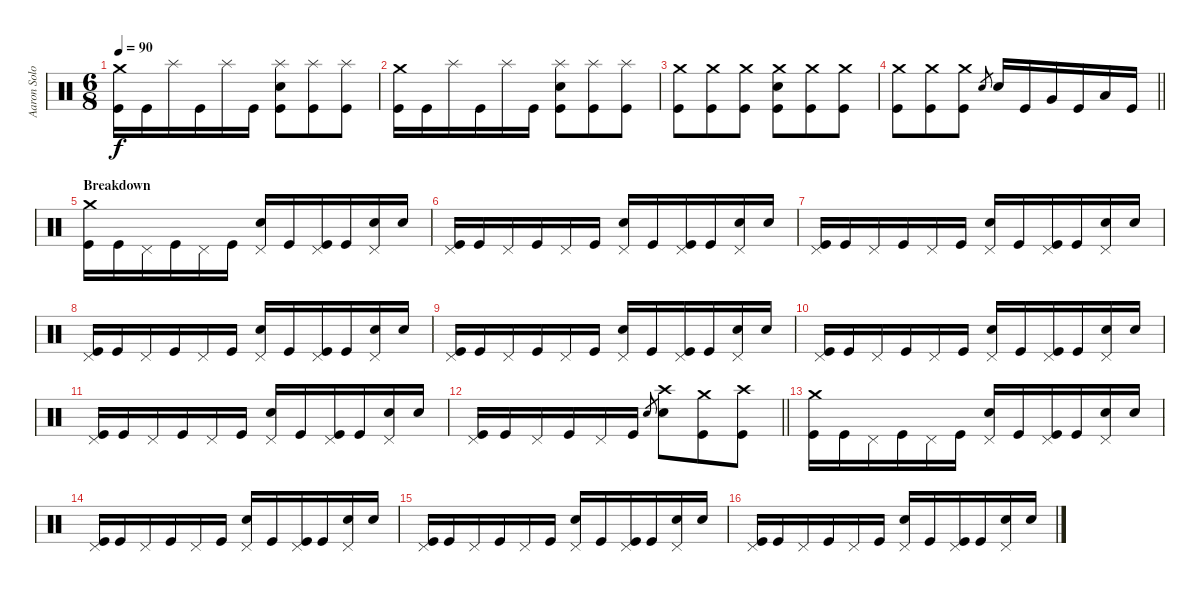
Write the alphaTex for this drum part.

\track ("Aaron Solowoniuk" "Aaron Solo") {instrument percussion}
\staff {score}
\articulation defaults
\ts (6 8)
\tempo 90
\clef neutral
\ks c
("Crash medium (hit)" "Kick (hit)").16{dy f} "Kick (hit)".16 "Splash (hit)".16 "Kick (hit)".16 "Splash (hit)".16 "Kick (hit)".16 ("Splash (hit)" "Electric Snare (hit)" "Kick (hit)").8 ("Splash (hit)" "Kick (hit)").8 ("Splash (hit)" "Kick (hit)").8 |
("Crash medium (hit)" "Kick (hit)").16 "Kick (hit)".16 "Splash (hit)".16 "Kick (hit)".16 "Splash (hit)".16 "Kick (hit)".16 ("Splash (hit)" "Electric Snare (hit)" "Kick (hit)").8 ("Splash (hit)" "Kick (hit)").8 ("Splash (hit)" "Kick (hit)").8 |
("Crash medium (hit)" "Kick (hit)").8 ("Crash medium (hit)" "Kick (hit)").8 ("Crash medium (hit)" "Kick (hit)").8 ("Crash medium (hit)" "Electric Snare (hit)" "Kick (hit)").8 ("Crash medium (hit)" "Kick (hit)").8 ("Crash medium (hit)" "Kick (hit)").8 |
\barLineRight lightlight
("Crash medium (hit)" "Kick (hit)").8 ("Crash medium (hit)" "Kick (hit)").8 ("Crash medium (hit)" "Kick (hit)").8 "Electric Snare (hit)".8{gr} "Electric Snare (hit)".16 "Kick (hit)".16 "Very Low Tom (hit)".16 "Kick (hit)".16 "Low Floor Tom (hit)".16 "Kick (hit)".16 |
\section ("" "Breakdown")
("Crash medium (hit)" "Kick (hit)").16 "Kick (hit)".16 "Pedal Hi-Hat (hit)".16 "Kick (hit)".16 "Pedal Hi-Hat (hit)".16 "Kick (hit)".16 ("Pedal Hi-Hat (hit)" "Electric Snare (hit)").16 "Kick (hit)".16 ("Pedal Hi-Hat (hit)" "Kick (hit)").16 "Kick (hit)".16 ("Pedal Hi-Hat (hit)" "Electric Snare (hit)").16 "Electric Snare (hit)".16 |
("Pedal Hi-Hat (hit)" "Kick (hit)").16 "Kick (hit)".16 "Pedal Hi-Hat (hit)".16 "Kick (hit)".16 "Pedal Hi-Hat (hit)".16 "Kick (hit)".16 ("Pedal Hi-Hat (hit)" "Electric Snare (hit)").16 "Kick (hit)".16 ("Pedal Hi-Hat (hit)" "Kick (hit)").16 "Kick (hit)".16 ("Pedal Hi-Hat (hit)" "Electric Snare (hit)").16 "Electric Snare (hit)".16 |
("Pedal Hi-Hat (hit)" "Kick (hit)").16 "Kick (hit)".16 "Pedal Hi-Hat (hit)".16 "Kick (hit)".16 "Pedal Hi-Hat (hit)".16 "Kick (hit)".16 ("Pedal Hi-Hat (hit)" "Electric Snare (hit)").16 "Kick (hit)".16 ("Pedal Hi-Hat (hit)" "Kick (hit)").16 "Kick (hit)".16 ("Pedal Hi-Hat (hit)" "Electric Snare (hit)").16 "Electric Snare (hit)".16 |
("Pedal Hi-Hat (hit)" "Kick (hit)").16 "Kick (hit)".16 "Pedal Hi-Hat (hit)".16 "Kick (hit)".16 "Pedal Hi-Hat (hit)".16 "Kick (hit)".16 ("Pedal Hi-Hat (hit)" "Electric Snare (hit)").16 "Kick (hit)".16 ("Pedal Hi-Hat (hit)" "Kick (hit)").16 "Kick (hit)".16 ("Pedal Hi-Hat (hit)" "Electric Snare (hit)").16 "Electric Snare (hit)".16 |
("Pedal Hi-Hat (hit)" "Kick (hit)").16 "Kick (hit)".16 "Pedal Hi-Hat (hit)".16 "Kick (hit)".16 "Pedal Hi-Hat (hit)".16 "Kick (hit)".16 ("Pedal Hi-Hat (hit)" "Electric Snare (hit)").16 "Kick (hit)".16 ("Pedal Hi-Hat (hit)" "Kick (hit)").16 "Kick (hit)".16 ("Pedal Hi-Hat (hit)" "Electric Snare (hit)").16 "Electric Snare (hit)".16 |
("Pedal Hi-Hat (hit)" "Kick (hit)").16 "Kick (hit)".16 "Pedal Hi-Hat (hit)".16 "Kick (hit)".16 "Pedal Hi-Hat (hit)".16 "Kick (hit)".16 ("Pedal Hi-Hat (hit)" "Electric Snare (hit)").16 "Kick (hit)".16 ("Pedal Hi-Hat (hit)" "Kick (hit)").16 "Kick (hit)".16 ("Pedal Hi-Hat (hit)" "Electric Snare (hit)").16 "Electric Snare (hit)".16 |
("Pedal Hi-Hat (hit)" "Kick (hit)").16 "Kick (hit)".16 "Pedal Hi-Hat (hit)".16 "Kick (hit)".16 "Pedal Hi-Hat (hit)".16 "Kick (hit)".16 ("Pedal Hi-Hat (hit)" "Electric Snare (hit)").16 "Kick (hit)".16 ("Pedal Hi-Hat (hit)" "Kick (hit)").16 "Kick (hit)".16 ("Pedal Hi-Hat (hit)" "Electric Snare (hit)").16 "Electric Snare (hit)".16 |
\barLineRight lightlight
("Pedal Hi-Hat (hit)" "Kick (hit)").16 "Kick (hit)".16 "Pedal Hi-Hat (hit)".16 "Kick (hit)".16 "Pedal Hi-Hat (hit)".16 "Kick (hit)".16 "Electric Snare (hit)".8{gr} ("Crash high (hit)" "Electric Snare (hit)").8 ("Crash medium (hit)" "Kick (hit)").8 ("Crash high (hit)" "Kick (hit)").8 |
\section ("" "")
("Crash medium (hit)" "Kick (hit)").16 "Kick (hit)".16 "Pedal Hi-Hat (hit)".16 "Kick (hit)".16 "Pedal Hi-Hat (hit)".16 "Kick (hit)".16 ("Pedal Hi-Hat (hit)" "Electric Snare (hit)").16 "Kick (hit)".16 ("Pedal Hi-Hat (hit)" "Kick (hit)").16 "Kick (hit)".16 ("Pedal Hi-Hat (hit)" "Electric Snare (hit)").16 "Electric Snare (hit)".16 |
("Pedal Hi-Hat (hit)" "Kick (hit)").16 "Kick (hit)".16 "Pedal Hi-Hat (hit)".16 "Kick (hit)".16 "Pedal Hi-Hat (hit)".16 "Kick (hit)".16 ("Pedal Hi-Hat (hit)" "Electric Snare (hit)").16 "Kick (hit)".16 ("Pedal Hi-Hat (hit)" "Kick (hit)").16 "Kick (hit)".16 ("Pedal Hi-Hat (hit)" "Electric Snare (hit)").16 "Electric Snare (hit)".16 |
("Pedal Hi-Hat (hit)" "Kick (hit)").16 "Kick (hit)".16 "Pedal Hi-Hat (hit)".16 "Kick (hit)".16 "Pedal Hi-Hat (hit)".16 "Kick (hit)".16 ("Pedal Hi-Hat (hit)" "Electric Snare (hit)").16 "Kick (hit)".16 ("Pedal Hi-Hat (hit)" "Kick (hit)").16 "Kick (hit)".16 ("Pedal Hi-Hat (hit)" "Electric Snare (hit)").16 "Electric Snare (hit)".16 |
("Pedal Hi-Hat (hit)" "Kick (hit)").16 "Kick (hit)".16 "Pedal Hi-Hat (hit)".16 "Kick (hit)".16 "Pedal Hi-Hat (hit)".16 "Kick (hit)".16 ("Pedal Hi-Hat (hit)" "Electric Snare (hit)").16 "Kick (hit)".16 ("Pedal Hi-Hat (hit)" "Kick (hit)").16 "Kick (hit)".16 ("Pedal Hi-Hat (hit)" "Electric Snare (hit)").16 "Electric Snare (hit)".16
